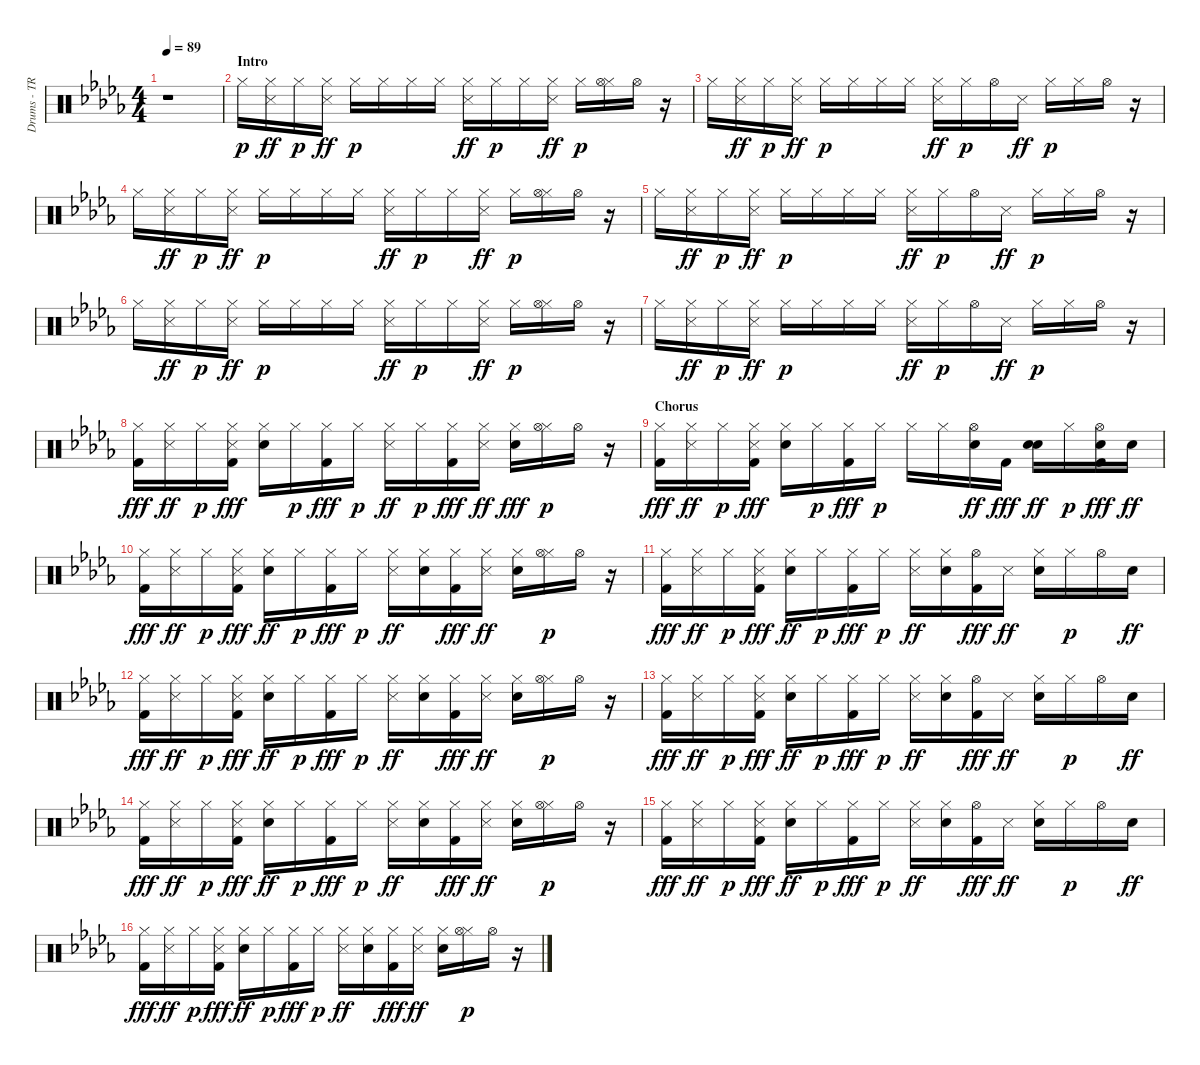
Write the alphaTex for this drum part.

\track ("Drums - TR808" "Drums - TR") {instrument percussion}
\staff {score}
\articulation defaults
\ts (4 4)
\tempo 89
\clef neutral
\ks bbminor
r.1{dy p} |
\section ("" "Intro")
"Hi-Hat (closed)".16 ("Snare (side stick) 3" "Hi-Hat (closed)").16{dy ff} "Hi-Hat (closed)".16{dy p} ("Snare (side stick) 3" "Hi-Hat (closed)").16{dy ff} "Hi-Hat (closed)".16{dy p} "Hi-Hat (closed)".16 "Hi-Hat (closed)".16 "Hi-Hat (closed)".16 ("Snare (side stick) 3" "Hi-Hat (closed)").16{dy ff} "Hi-Hat (closed)".16{dy p} "Hi-Hat (closed)".16 ("Snare (side stick) 3" "Hi-Hat (closed)").16{dy ff} "Hi-Hat (closed)".16{dy p} ("Hi-Hat (closed)" "Hi-Hat (open)").16 "Hi-Hat (open)".16 r.16 |
"Hi-Hat (closed)".16 ("Snare (side stick) 3" "Hi-Hat (closed)").16{dy ff} "Hi-Hat (closed)".16{dy p} ("Snare (side stick) 3" "Hi-Hat (closed)").16{dy ff} "Hi-Hat (closed)".16{dy p} "Hi-Hat (closed)".16 "Hi-Hat (closed)".16 "Hi-Hat (closed)".16 ("Snare (side stick) 3" "Hi-Hat (closed)").16{dy ff} "Hi-Hat (closed)".16{dy p} "Hi-Hat (open)".16 "Snare (side stick) 3".16{dy ff} "Hi-Hat (closed)".16{dy p} "Hi-Hat (closed)".16 "Hi-Hat (open)".16 r.16 |
"Hi-Hat (closed)".16 ("Snare (side stick) 3" "Hi-Hat (closed)").16{dy ff} "Hi-Hat (closed)".16{dy p} ("Snare (side stick) 3" "Hi-Hat (closed)").16{dy ff} "Hi-Hat (closed)".16{dy p} "Hi-Hat (closed)".16 "Hi-Hat (closed)".16 "Hi-Hat (closed)".16 ("Snare (side stick) 3" "Hi-Hat (closed)").16{dy ff} "Hi-Hat (closed)".16{dy p} "Hi-Hat (closed)".16 ("Snare (side stick) 3" "Hi-Hat (closed)").16{dy ff} "Hi-Hat (closed)".16{dy p} ("Hi-Hat (closed)" "Hi-Hat (open)").16 "Hi-Hat (open)".16 r.16 |
"Hi-Hat (closed)".16 ("Snare (side stick) 3" "Hi-Hat (closed)").16{dy ff} "Hi-Hat (closed)".16{dy p} ("Snare (side stick) 3" "Hi-Hat (closed)").16{dy ff} "Hi-Hat (closed)".16{dy p} "Hi-Hat (closed)".16 "Hi-Hat (closed)".16 "Hi-Hat (closed)".16 ("Snare (side stick) 3" "Hi-Hat (closed)").16{dy ff} "Hi-Hat (closed)".16{dy p} "Hi-Hat (open)".16 "Snare (side stick) 3".16{dy ff} "Hi-Hat (closed)".16{dy p} "Hi-Hat (closed)".16 "Hi-Hat (open)".16 r.16 |
"Hi-Hat (closed)".16 ("Snare (side stick) 3" "Hi-Hat (closed)").16{dy ff} "Hi-Hat (closed)".16{dy p} ("Snare (side stick) 3" "Hi-Hat (closed)").16{dy ff} "Hi-Hat (closed)".16{dy p} "Hi-Hat (closed)".16 "Hi-Hat (closed)".16 "Hi-Hat (closed)".16 ("Snare (side stick) 3" "Hi-Hat (closed)").16{dy ff} "Hi-Hat (closed)".16{dy p} "Hi-Hat (closed)".16 ("Snare (side stick) 3" "Hi-Hat (closed)").16{dy ff} "Hi-Hat (closed)".16{dy p} ("Hi-Hat (closed)" "Hi-Hat (open)").16 "Hi-Hat (open)".16 r.16 |
"Hi-Hat (closed)".16 ("Snare (side stick) 3" "Hi-Hat (closed)").16{dy ff} "Hi-Hat (closed)".16{dy p} ("Snare (side stick) 3" "Hi-Hat (closed)").16{dy ff} "Hi-Hat (closed)".16{dy p} "Hi-Hat (closed)".16 "Hi-Hat (closed)".16 "Hi-Hat (closed)".16 ("Snare (side stick) 3" "Hi-Hat (closed)").16{dy ff} "Hi-Hat (closed)".16{dy p} "Hi-Hat (open)".16 "Snare (side stick) 3".16{dy ff} "Hi-Hat (closed)".16{dy p} "Hi-Hat (closed)".16 "Hi-Hat (open)".16 r.16 |
("Kick (hit) 2" "Hi-Hat (closed)").16{dy fff} ("Snare (side stick) 3" "Hi-Hat (closed)").16{dy ff} "Hi-Hat (closed)".16{dy p} ("Kick (hit) 2" "Snare (side stick) 3" "Hi-Hat (closed)").16{dy fff} ("Hand Clap (hit)" "Hi-Hat (closed)").16 "Hi-Hat (closed)".16{dy p} ("Kick (hit) 2" "Hi-Hat (closed)").16{dy fff} "Hi-Hat (closed)".16{dy p} ("Snare (side stick) 3" "Hi-Hat (closed)").16{dy ff} "Hi-Hat (closed)".16{dy p} ("Kick (hit) 2" "Hi-Hat (closed)").16{dy fff} ("Snare (side stick) 3" "Hi-Hat (closed)").16{dy ff} ("Hand Clap (hit)" "Hi-Hat (closed)").16{dy fff} ("Hi-Hat (closed)" "Hi-Hat (open)").16{dy p} "Hi-Hat (open)".16 r.16 |
\section ("" "Chorus")
("Kick (hit) 2" "Hi-Hat (closed)").16{dy fff} ("Snare (side stick) 3" "Hi-Hat (closed)").16{dy ff} "Hi-Hat (closed)".16{dy p} ("Kick (hit) 2" "Snare (side stick) 3" "Hi-Hat (closed)").16{dy fff} ("Hand Clap (hit)" "Hi-Hat (closed)").16 "Hi-Hat (closed)".16{dy p} ("Kick (hit) 2" "Hi-Hat (closed)").16{dy fff} "Hi-Hat (closed)".16{dy p} "Hi-Hat (closed)".16 "Hi-Hat (closed)".16 ("Snare (hit) 2" "Hi-Hat (open)").16{dy ff} "Kick (hit) 2".16{dy fff} ("Snare (hit) 2" "Hand Clap (hit)").16{dy ff} "Hi-Hat (closed)".16{dy p} ("Kick (hit) 2" "Snare (hit) 2" "Hi-Hat (open)").16{dy fff} "Snare (hit) 2".16{dy ff} |
("Kick (hit) 2" "Hi-Hat (closed)").16{dy fff} ("Snare (side stick) 3" "Hi-Hat (closed)").16{dy ff} "Hi-Hat (closed)".16{dy p} ("Kick (hit) 2" "Snare (side stick) 3" "Hi-Hat (closed)").16{dy fff} ("Snare (hit) 2" "Hi-Hat (closed)").16{dy ff} "Hi-Hat (closed)".16{dy p} ("Kick (hit) 2" "Hi-Hat (closed)").16{dy fff} "Hi-Hat (closed)".16{dy p} ("Snare (side stick) 3" "Hi-Hat (closed)").16{dy ff} ("Snare (hit) 2" "Hi-Hat (closed)").16 ("Kick (hit) 2" "Hi-Hat (closed)").16{dy fff} ("Snare (side stick) 3" "Hi-Hat (closed)").16{dy ff} ("Snare (hit) 2" "Hi-Hat (closed)").16 ("Hi-Hat (closed)" "Hi-Hat (open)").16{dy p} "Hi-Hat (open)".16 r.16 |
("Kick (hit) 2" "Hi-Hat (closed)").16{dy fff} ("Snare (side stick) 3" "Hi-Hat (closed)").16{dy ff} "Hi-Hat (closed)".16{dy p} ("Kick (hit) 2" "Snare (side stick) 3" "Hi-Hat (closed)").16{dy fff} ("Snare (hit) 2" "Hi-Hat (closed)").16{dy ff} "Hi-Hat (closed)".16{dy p} ("Kick (hit) 2" "Hi-Hat (closed)").16{dy fff} "Hi-Hat (closed)".16{dy p} ("Snare (side stick) 3" "Hi-Hat (closed)").16{dy ff} ("Snare (hit) 2" "Hi-Hat (closed)").16 ("Kick (hit) 2" "Hi-Hat (open)").16{dy fff} "Snare (side stick) 3".16{dy ff} ("Snare (hit) 2" "Hi-Hat (closed)").16 "Hi-Hat (closed)".16{dy p} "Hi-Hat (open)".16 "Snare (hit) 2".16{dy ff} |
("Kick (hit) 2" "Hi-Hat (closed)").16{dy fff} ("Snare (side stick) 3" "Hi-Hat (closed)").16{dy ff} "Hi-Hat (closed)".16{dy p} ("Kick (hit) 2" "Snare (side stick) 3" "Hi-Hat (closed)").16{dy fff} ("Snare (hit) 2" "Hi-Hat (closed)").16{dy ff} "Hi-Hat (closed)".16{dy p} ("Kick (hit) 2" "Hi-Hat (closed)").16{dy fff} "Hi-Hat (closed)".16{dy p} ("Snare (side stick) 3" "Hi-Hat (closed)").16{dy ff} ("Snare (hit) 2" "Hi-Hat (closed)").16 ("Kick (hit) 2" "Hi-Hat (closed)").16{dy fff} ("Snare (side stick) 3" "Hi-Hat (closed)").16{dy ff} ("Snare (hit) 2" "Hi-Hat (closed)").16 ("Hi-Hat (closed)" "Hi-Hat (open)").16{dy p} "Hi-Hat (open)".16 r.16 |
("Kick (hit) 2" "Hi-Hat (closed)").16{dy fff} ("Snare (side stick) 3" "Hi-Hat (closed)").16{dy ff} "Hi-Hat (closed)".16{dy p} ("Kick (hit) 2" "Snare (side stick) 3" "Hi-Hat (closed)").16{dy fff} ("Snare (hit) 2" "Hi-Hat (closed)").16{dy ff} "Hi-Hat (closed)".16{dy p} ("Kick (hit) 2" "Hi-Hat (closed)").16{dy fff} "Hi-Hat (closed)".16{dy p} ("Snare (side stick) 3" "Hi-Hat (closed)").16{dy ff} ("Snare (hit) 2" "Hi-Hat (closed)").16 ("Kick (hit) 2" "Hi-Hat (open)").16{dy fff} "Snare (side stick) 3".16{dy ff} ("Snare (hit) 2" "Hi-Hat (closed)").16 "Hi-Hat (closed)".16{dy p} "Hi-Hat (open)".16 "Snare (hit) 2".16{dy ff} |
("Kick (hit) 2" "Hi-Hat (closed)").16{dy fff} ("Snare (side stick) 3" "Hi-Hat (closed)").16{dy ff} "Hi-Hat (closed)".16{dy p} ("Kick (hit) 2" "Snare (side stick) 3" "Hi-Hat (closed)").16{dy fff} ("Snare (hit) 2" "Hi-Hat (closed)").16{dy ff} "Hi-Hat (closed)".16{dy p} ("Kick (hit) 2" "Hi-Hat (closed)").16{dy fff} "Hi-Hat (closed)".16{dy p} ("Snare (side stick) 3" "Hi-Hat (closed)").16{dy ff} ("Snare (hit) 2" "Hi-Hat (closed)").16 ("Kick (hit) 2" "Hi-Hat (closed)").16{dy fff} ("Snare (side stick) 3" "Hi-Hat (closed)").16{dy ff} ("Snare (hit) 2" "Hi-Hat (closed)").16 ("Hi-Hat (closed)" "Hi-Hat (open)").16{dy p} "Hi-Hat (open)".16 r.16 |
("Kick (hit) 2" "Hi-Hat (closed)").16{dy fff} ("Snare (side stick) 3" "Hi-Hat (closed)").16{dy ff} "Hi-Hat (closed)".16{dy p} ("Kick (hit) 2" "Snare (side stick) 3" "Hi-Hat (closed)").16{dy fff} ("Snare (hit) 2" "Hi-Hat (closed)").16{dy ff} "Hi-Hat (closed)".16{dy p} ("Kick (hit) 2" "Hi-Hat (closed)").16{dy fff} "Hi-Hat (closed)".16{dy p} ("Snare (side stick) 3" "Hi-Hat (closed)").16{dy ff} ("Snare (hit) 2" "Hi-Hat (closed)").16 ("Kick (hit) 2" "Hi-Hat (open)").16{dy fff} "Snare (side stick) 3".16{dy ff} ("Snare (hit) 2" "Hi-Hat (closed)").16 "Hi-Hat (closed)".16{dy p} "Hi-Hat (open)".16 "Snare (hit) 2".16{dy ff} |
("Kick (hit) 2" "Hi-Hat (closed)").16{dy fff} ("Snare (side stick) 3" "Hi-Hat (closed)").16{dy ff} "Hi-Hat (closed)".16{dy p} ("Kick (hit) 2" "Snare (side stick) 3" "Hi-Hat (closed)").16{dy fff} ("Snare (hit) 2" "Hi-Hat (closed)").16{dy ff} "Hi-Hat (closed)".16{dy p} ("Kick (hit) 2" "Hi-Hat (closed)").16{dy fff} "Hi-Hat (closed)".16{dy p} ("Snare (side stick) 3" "Hi-Hat (closed)").16{dy ff} ("Snare (hit) 2" "Hi-Hat (closed)").16 ("Kick (hit) 2" "Hi-Hat (closed)").16{dy fff} ("Snare (side stick) 3" "Hi-Hat (closed)").16{dy ff} ("Snare (hit) 2" "Hi-Hat (closed)").16 ("Hi-Hat (closed)" "Hi-Hat (open)").16{dy p} "Hi-Hat (open)".16 r.16
